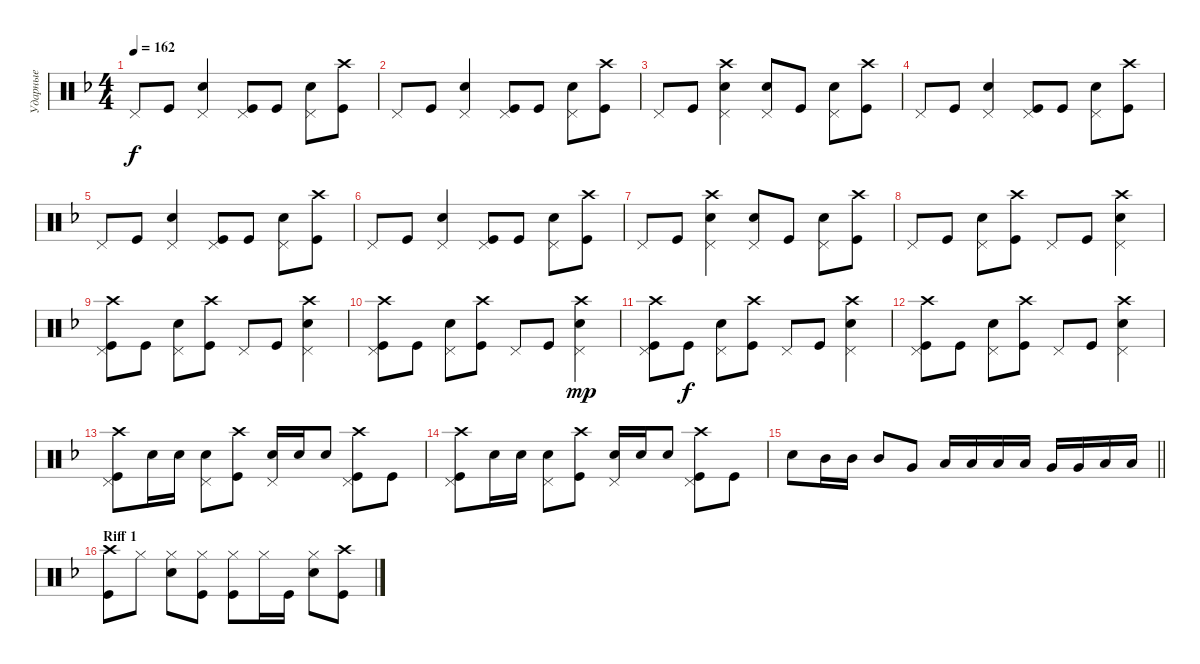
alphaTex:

\track ("Ударные" "Ударные") {instrument percussion}
\staff {score}
\articulation defaults
\ts (4 4)
\tempo 162
\clef neutral
\ks dminor "Pedal Hi-Hat (hit)".8{dy f} "Kick (hit)".8
("Snare (hit) 2" "Pedal Hi-Hat (hit)").4 ("Kick (hit)" "Pedal Hi-Hat (hit)").8 "Kick (hit)".8 ("Snare (hit) 2" "Pedal Hi-Hat (hit)").8 ("Kick (hit)" "Crash high (hit)").8 |
"Pedal Hi-Hat (hit)".8 "Kick (hit)".8 ("Snare (hit) 2" "Pedal Hi-Hat (hit)").4 ("Kick (hit)" "Pedal Hi-Hat (hit)").8 "Kick (hit)".8 ("Snare (hit) 2" "Pedal Hi-Hat (hit)").8 ("Kick (hit)" "Crash high (hit)").8 |
"Pedal Hi-Hat (hit)".8 "Kick (hit)".8 ("Snare (hit) 2" "Crash high (hit)" "Pedal Hi-Hat (hit)").4 ("Snare (hit) 2" "Pedal Hi-Hat (hit)").8 "Kick (hit)".8 ("Snare (hit) 2" "Pedal Hi-Hat (hit)").8 ("Kick (hit)" "Crash high (hit)").8 |
"Pedal Hi-Hat (hit)".8 "Kick (hit)".8 ("Snare (hit) 2" "Pedal Hi-Hat (hit)").4 ("Kick (hit)" "Pedal Hi-Hat (hit)").8 "Kick (hit)".8 ("Snare (hit) 2" "Pedal Hi-Hat (hit)").8 ("Kick (hit)" "Crash high (hit)").8 |
"Pedal Hi-Hat (hit)".8 "Kick (hit)".8 ("Snare (hit) 2" "Pedal Hi-Hat (hit)").4 ("Kick (hit)" "Pedal Hi-Hat (hit)").8 "Kick (hit)".8 ("Snare (hit) 2" "Pedal Hi-Hat (hit)").8 ("Kick (hit)" "Crash high (hit)").8 |
"Pedal Hi-Hat (hit)".8 "Kick (hit)".8 ("Snare (hit) 2" "Pedal Hi-Hat (hit)").4 ("Kick (hit)" "Pedal Hi-Hat (hit)").8 "Kick (hit)".8 ("Snare (hit) 2" "Pedal Hi-Hat (hit)").8 ("Kick (hit)" "Crash high (hit)").8 |
"Pedal Hi-Hat (hit)".8 "Kick (hit)".8 ("Snare (hit) 2" "Crash high (hit)" "Pedal Hi-Hat (hit)").4 ("Snare (hit) 2" "Pedal Hi-Hat (hit)").8 "Kick (hit)".8 ("Snare (hit) 2" "Pedal Hi-Hat (hit)").8 ("Kick (hit)" "Crash high (hit)").8 |
"Pedal Hi-Hat (hit)".8 "Kick (hit)".8 ("Snare (hit) 2" "Pedal Hi-Hat (hit)").8 ("Kick (hit)" "Crash high (hit)").8 "Pedal Hi-Hat (hit)".8 "Kick (hit)".8 ("Snare (hit) 2" "Crash high (hit)" "Pedal Hi-Hat (hit)").4 |
("Kick (hit)" "Crash high (hit)" "Pedal Hi-Hat (hit)").8 "Kick (hit)".8 ("Snare (hit) 2" "Pedal Hi-Hat (hit)").8 ("Kick (hit)" "Crash high (hit)").8 "Pedal Hi-Hat (hit)".8 "Kick (hit)".8 ("Snare (hit) 2" "Crash high (hit)" "Pedal Hi-Hat (hit)").4 |
("Kick (hit)" "Crash high (hit)" "Pedal Hi-Hat (hit)").8 "Kick (hit)".8 ("Snare (hit) 2" "Pedal Hi-Hat (hit)").8 ("Kick (hit)" "Crash high (hit)").8 "Pedal Hi-Hat (hit)".8 "Kick (hit)".8 ("Snare (hit) 2" "Pedal Hi-Hat (hit)" "Crash high (hit)").4{dy mp} |
("Kick (hit)" "Crash high (hit)" "Pedal Hi-Hat (hit)").8 "Kick (hit)".8{dy f} ("Snare (hit) 2" "Pedal Hi-Hat (hit)").8 ("Kick (hit)" "Crash high (hit)").8 "Pedal Hi-Hat (hit)".8 "Kick (hit)".8 ("Snare (hit) 2" "Crash high (hit)" "Pedal Hi-Hat (hit)").4 |
("Kick (hit)" "Crash high (hit)" "Pedal Hi-Hat (hit)").8 "Kick (hit)".8 ("Snare (hit) 2" "Pedal Hi-Hat (hit)").8 ("Kick (hit)" "Crash high (hit)").8 "Pedal Hi-Hat (hit)".8 "Kick (hit)".8 ("Snare (hit) 2" "Crash high (hit)" "Pedal Hi-Hat (hit)").4 |
("Kick (hit)" "Crash high (hit)" "Pedal Hi-Hat (hit)").8 "Snare (hit) 2".16 "Snare (hit) 2".16 ("Snare (hit) 2" "Pedal Hi-Hat (hit)").8 ("Kick (hit)" "Crash high (hit)").8 ("Snare (hit) 2" "Pedal Hi-Hat (hit)").16 "Snare (hit) 2".16 "Snare (hit) 2".8 ("Kick (hit)" "Crash high (hit)" "Pedal Hi-Hat (hit)").8 "Kick (hit)".8 |
("Kick (hit)" "Crash high (hit)" "Pedal Hi-Hat (hit)").8 "Snare (hit) 2".16 "Snare (hit) 2".16 ("Snare (hit) 2" "Pedal Hi-Hat (hit)").8 ("Kick (hit)" "Crash high (hit)").8 ("Snare (hit) 2" "Pedal Hi-Hat (hit)").16 "Snare (hit) 2".16 "Snare (hit) 2".8 ("Kick (hit)" "Crash high (hit)" "Pedal Hi-Hat (hit)").8 "Kick (hit)".8 |
\barLineRight lightlight "Snare (hit) 2".8 "Mid Tom (hit)".16 "Mid Tom (hit)".16 "Mid Tom (hit)".8 "Very Low Tom (hit)".8 "Low Tom (hit)".16 "Low Tom (hit)".16 "Low Tom (hit)".16 "Low Tom (hit)".16 "Very Low Tom (hit)".16 "Very Low Tom (hit)".16 "Low Floor Tom (hit)".16 "Low Floor Tom (hit)".16
|
\section ("" "Riff 1")
("Kick (hit)" "Crash high (hit)").8 "Hi-Hat (closed)".8 ("Hi-Hat (closed)" "Snare (hit) 2").8 ("Hi-Hat (closed)" "Kick (hit)").8 ("Hi-Hat (closed)" "Kick (hit)").8 "Hi-Hat (closed)".16 "Kick (hit)".16 ("Hi-Hat (closed)" "Snare (hit) 2").8 ("Crash high (hit)" "Kick (hit)").8
